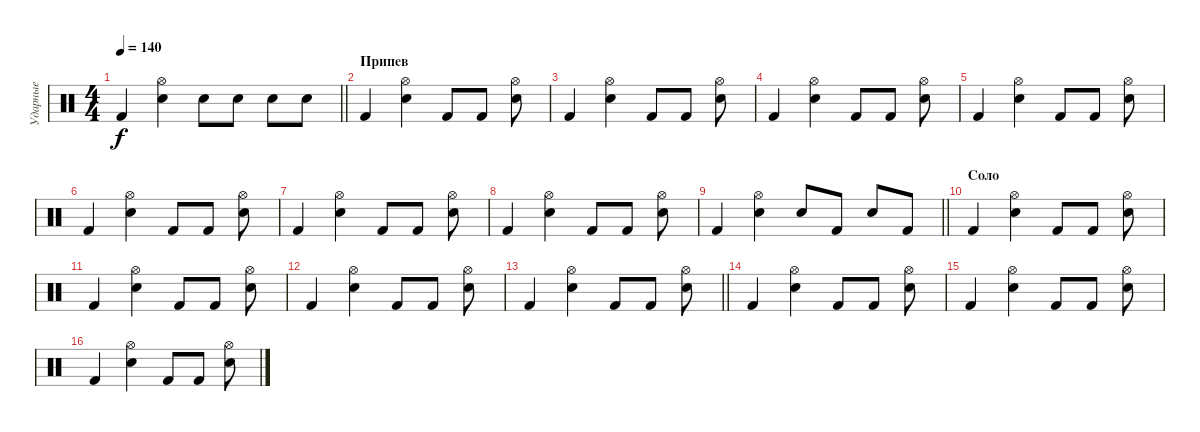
\track ("Ударные" "Ударные") {instrument percussion}
\staff {score}
\articulation defaults
\ts (4 4)
\tempo 140
\clef neutral
\barLineRight lightlight
\ks c "Kick (hit) 2".4{dy f}
("Electric Snare (hit)" "Hi-Hat (open)").4 "Electric Snare (hit)".8 "Electric Snare (hit)".8 "Electric Snare (hit)".8 "Electric Snare (hit)".8 |
\section ("" "Припев")
"Kick (hit) 2".4 ("Electric Snare (hit)" "Hi-Hat (open)").4 "Kick (hit) 2".8 "Kick (hit) 2".8 ("Electric Snare (hit)" "Hi-Hat (open)").8 |
"Kick (hit) 2".4 ("Electric Snare (hit)" "Hi-Hat (open)").4 "Kick (hit) 2".8 "Kick (hit) 2".8 ("Electric Snare (hit)" "Hi-Hat (open)").8 |
"Kick (hit) 2".4 ("Electric Snare (hit)" "Hi-Hat (open)").4 "Kick (hit) 2".8 "Kick (hit) 2".8 ("Electric Snare (hit)" "Hi-Hat (open)").8 |
"Kick (hit) 2".4 ("Electric Snare (hit)" "Hi-Hat (open)").4 "Kick (hit) 2".8 "Kick (hit) 2".8 ("Electric Snare (hit)" "Hi-Hat (open)").8 |
"Kick (hit) 2".4 ("Electric Snare (hit)" "Hi-Hat (open)").4 "Kick (hit) 2".8 "Kick (hit) 2".8 ("Electric Snare (hit)" "Hi-Hat (open)").8 |
"Kick (hit) 2".4 ("Electric Snare (hit)" "Hi-Hat (open)").4 "Kick (hit) 2".8 "Kick (hit) 2".8 ("Electric Snare (hit)" "Hi-Hat (open)").8 |
"Kick (hit) 2".4 ("Electric Snare (hit)" "Hi-Hat (open)").4 "Kick (hit) 2".8 "Kick (hit) 2".8 ("Electric Snare (hit)" "Hi-Hat (open)").8 |
\barLineRight lightlight "Kick (hit) 2".4
("Electric Snare (hit)" "Hi-Hat (open)").4 "Electric Snare (hit)".8 "Kick (hit) 2".8 "Electric Snare (hit)".8 "Kick (hit) 2".8 |
\section ("" "Соло")
"Kick (hit) 2".4 ("Electric Snare (hit)" "Hi-Hat (open)").4 "Kick (hit) 2".8 "Kick (hit) 2".8 ("Electric Snare (hit)" "Hi-Hat (open)").8 |
"Kick (hit) 2".4 ("Electric Snare (hit)" "Hi-Hat (open)").4 "Kick (hit) 2".8 "Kick (hit) 2".8 ("Electric Snare (hit)" "Hi-Hat (open)").8 |
"Kick (hit) 2".4 ("Electric Snare (hit)" "Hi-Hat (open)").4 "Kick (hit) 2".8 "Kick (hit) 2".8 ("Electric Snare (hit)" "Hi-Hat (open)").8 |
\barLineRight lightlight "Kick (hit) 2".4
("Electric Snare (hit)" "Hi-Hat (open)").4 "Kick (hit) 2".8 "Kick (hit) 2".8 ("Electric Snare (hit)" "Hi-Hat (open)").8 |
"Kick (hit) 2".4 ("Electric Snare (hit)" "Hi-Hat (open)").4 "Kick (hit) 2".8 "Kick (hit) 2".8 ("Electric Snare (hit)" "Hi-Hat (open)").8 |
"Kick (hit) 2".4 ("Electric Snare (hit)" "Hi-Hat (open)").4 "Kick (hit) 2".8 "Kick (hit) 2".8 ("Electric Snare (hit)" "Hi-Hat (open)").8 |
"Kick (hit) 2".4 ("Electric Snare (hit)" "Hi-Hat (open)").4 "Kick (hit) 2".8 "Kick (hit) 2".8 ("Electric Snare (hit)" "Hi-Hat (open)").8
